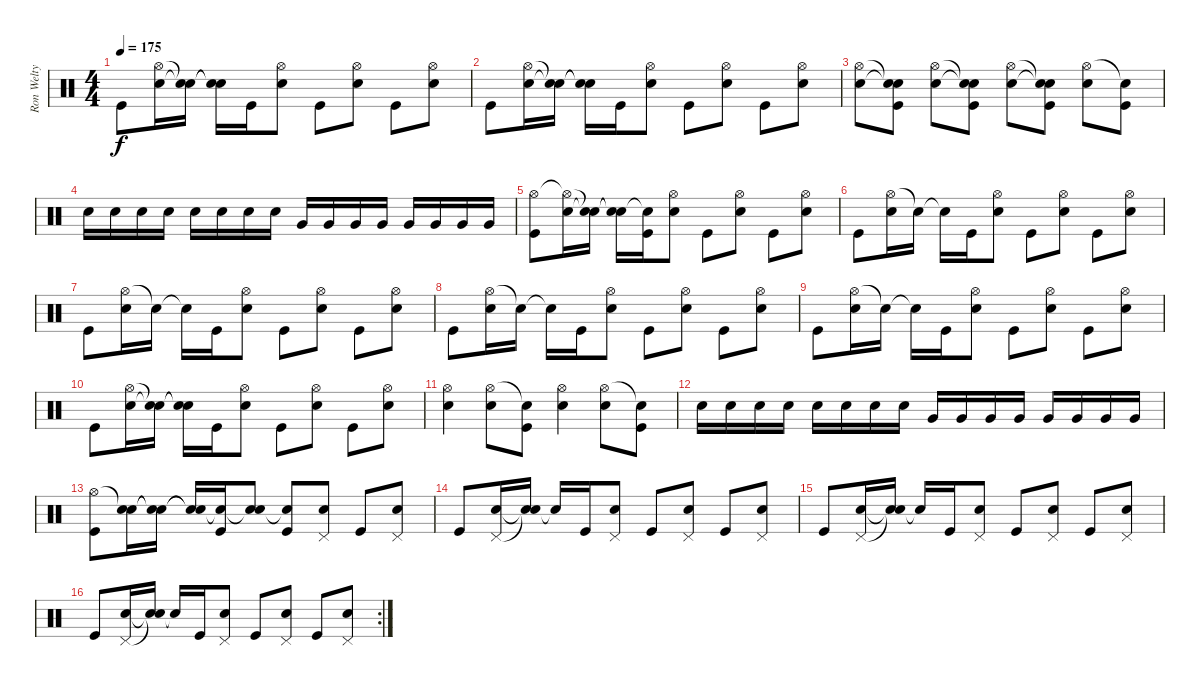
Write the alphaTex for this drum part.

\track ("Ron Welty" "Ron Welty") {instrument percussion}
\staff {score}
\articulation defaults
\ts (4 4)
\tempo 175
\clef neutral
\ks c "Kick (hit)".8{dy f}
("Hi-Hat (open)" "Electric Snare (hit)").16 ("Snare (hit)"{t} "Snare (hit)"{t}).16 ("Snare (hit)"{t} "Snare (hit)"{t}).16 "Kick (hit)".16 ("Hi-Hat (open)" "Electric Snare (hit)").8 "Kick (hit)".8 ("Hi-Hat (open)" "Electric Snare (hit)").8 "Kick (hit)".8 ("Hi-Hat (open)" "Electric Snare (hit)").8 |
"Kick (hit)".8 ("Hi-Hat (open)" "Electric Snare (hit)").16 ("Snare (hit)"{t} "Snare (hit)"{t}).16 ("Snare (hit)"{t} "Snare (hit)"{t}).16 "Kick (hit)".16 ("Hi-Hat (open)" "Electric Snare (hit)").8 "Kick (hit)".8 ("Hi-Hat (open)" "Electric Snare (hit)").8 "Kick (hit)".8 ("Hi-Hat (open)" "Electric Snare (hit)").8 |
("Hi-Hat (open)" "Electric Snare (hit)").8 ("Snare (hit)"{t} "Snare (hit)"{t} "Kick (hit)").8 ("Hi-Hat (open)" "Electric Snare (hit)").8 ("Snare (hit)"{t} "Snare (hit)"{t} "Kick (hit)").8 ("Hi-Hat (open)" "Electric Snare (hit)").8 ("Snare (hit)"{t} "Snare (hit)"{t} "Kick (hit)").8 ("Hi-Hat (open)" "Electric Snare (hit)").8 ("Snare (hit)"{t} "Kick (hit)").8 |
"Electric Snare (hit)".16 "Electric Snare (hit)".16 "Electric Snare (hit)".16 "Electric Snare (hit)".16 "Electric Snare (hit)".16 "Electric Snare (hit)".16 "Electric Snare (hit)".16 "Electric Snare (hit)".16 "Very Low Tom (hit)".16 "Very Low Tom (hit)".16 "Very Low Tom (hit)".16 "Very Low Tom (hit)".16 "Very Low Tom (hit)".16 "Very Low Tom (hit)".16 "Very Low Tom (hit)".16 "Very Low Tom (hit)".16 |
("Hi-Hat (open)" "Kick (hit)").8 ("Hi-Hat (open)"{t} "Electric Snare (hit)").16 ("Snare (hit)"{t} "Snare (hit)"{t}).16 ("Snare (hit)"{t} "Snare (hit)"{t}).16 ("Snare (hit)"{t} "Kick (hit)").16 ("Hi-Hat (open)" "Electric Snare (hit)").8 "Kick (hit)".8 ("Hi-Hat (open)" "Electric Snare (hit)").8 "Kick (hit)".8 ("Hi-Hat (open)" "Electric Snare (hit)").8 |
"Kick (hit)".8 ("Hi-Hat (open)" "Electric Snare (hit)").16 "Snare (hit)"{t}.16 "Snare (hit)"{t}.16 "Kick (hit)".16 ("Hi-Hat (open)" "Electric Snare (hit)").8 "Kick (hit)".8 ("Hi-Hat (open)" "Electric Snare (hit)").8 "Kick (hit)".8 ("Hi-Hat (open)" "Electric Snare (hit)").8 |
"Kick (hit)".8 ("Hi-Hat (open)" "Electric Snare (hit)").16 "Snare (hit)"{t}.16 "Snare (hit)"{t}.16 "Kick (hit)".16 ("Hi-Hat (open)" "Electric Snare (hit)").8 "Kick (hit)".8 ("Hi-Hat (open)" "Electric Snare (hit)").8 "Kick (hit)".8 ("Hi-Hat (open)" "Electric Snare (hit)").8 |
"Kick (hit)".8 ("Hi-Hat (open)" "Electric Snare (hit)").16 "Snare (hit)"{t}.16 "Snare (hit)"{t}.16 "Kick (hit)".16 ("Hi-Hat (open)" "Electric Snare (hit)").8 "Kick (hit)".8 ("Hi-Hat (open)" "Electric Snare (hit)").8 "Kick (hit)".8 ("Hi-Hat (open)" "Electric Snare (hit)").8 |
"Kick (hit)".8 ("Hi-Hat (open)" "Electric Snare (hit)").16 "Snare (hit)"{t}.16 "Snare (hit)"{t}.16 "Kick (hit)".16 ("Hi-Hat (open)" "Electric Snare (hit)").8 "Kick (hit)".8 ("Hi-Hat (open)" "Electric Snare (hit)").8 "Kick (hit)".8 ("Hi-Hat (open)" "Electric Snare (hit)").8 |
"Kick (hit)".8 ("Hi-Hat (open)" "Electric Snare (hit)").16 ("Snare (hit)"{t} "Snare (hit)"{t}).16 ("Snare (hit)"{t} "Snare (hit)"{t}).16 "Kick (hit)".16 ("Hi-Hat (open)" "Electric Snare (hit)").8 "Kick (hit)".8 ("Hi-Hat (open)" "Electric Snare (hit)").8 "Kick (hit)".8 ("Hi-Hat (open)" "Electric Snare (hit)").8 |
("Hi-Hat (open)" "Electric Snare (hit)").4 ("Hi-Hat (open)" "Electric Snare (hit)").8 ("Snare (hit)"{t} "Kick (hit)").8 ("Hi-Hat (open)" "Electric Snare (hit)").4 ("Hi-Hat (open)" "Electric Snare (hit)").8 ("Snare (hit)"{t} "Kick (hit)").8 |
"Electric Snare (hit)".16 "Electric Snare (hit)".16 "Electric Snare (hit)".16 "Electric Snare (hit)".16 "Electric Snare (hit)".16 "Electric Snare (hit)".16 "Electric Snare (hit)".16 "Electric Snare (hit)".16 "Very Low Tom (hit)".16 "Very Low Tom (hit)".16 "Very Low Tom (hit)".16 "Very Low Tom (hit)".16 "Very Low Tom (hit)".16 "Very Low Tom (hit)".16 "Very Low Tom (hit)".16 "Very Low Tom (hit)".16 |
("Hi-Hat (open)" "Kick (hit)").8 ("Snare (hit)"{t} "Electric Snare (hit)").16 ("Snare (hit)"{t} "Snare (hit)"{t}).16 ("Snare (hit)"{t} "Snare (hit)"{t}).16 ("Snare (hit)"{t} "Kick (hit)").16 ("Snare (hit)"{t} "Electric Snare (hit)").8 ("Snare (hit)"{t} "Kick (hit)").8 ("Pedal Hi-Hat (hit)" "Electric Snare (hit)").8 "Kick (hit)".8 ("Pedal Hi-Hat (hit)" "Electric Snare (hit)").8 |
"Kick (hit)".8 ("Pedal Hi-Hat (hit)" "Electric Snare (hit)").16 ("Snare (hit)"{t} "Snare (hit)"{t}).16 "Snare (hit)"{t}.16 "Kick (hit)".16 ("Pedal Hi-Hat (hit)" "Electric Snare (hit)").8 "Kick (hit)".8 ("Pedal Hi-Hat (hit)" "Electric Snare (hit)").8 "Kick (hit)".8 ("Pedal Hi-Hat (hit)" "Electric Snare (hit)").8 |
"Kick (hit)".8 ("Pedal Hi-Hat (hit)" "Electric Snare (hit)").16 ("Snare (hit)"{t} "Snare (hit)"{t}).16 "Snare (hit)"{t}.16 "Kick (hit)".16 ("Pedal Hi-Hat (hit)" "Electric Snare (hit)").8 "Kick (hit)".8 ("Pedal Hi-Hat (hit)" "Electric Snare (hit)").8 "Kick (hit)".8 ("Pedal Hi-Hat (hit)" "Electric Snare (hit)").8 |
\rc 2 "Kick (hit)".8
("Pedal Hi-Hat (hit)" "Electric Snare (hit)").16 ("Snare (hit)"{t} "Snare (hit)"{t}).16 "Snare (hit)"{t}.16 "Kick (hit)".16 ("Pedal Hi-Hat (hit)" "Electric Snare (hit)").8 "Kick (hit)".8 ("Pedal Hi-Hat (hit)" "Electric Snare (hit)").8 "Kick (hit)".8 ("Pedal Hi-Hat (hit)" "Electric Snare (hit)").8
